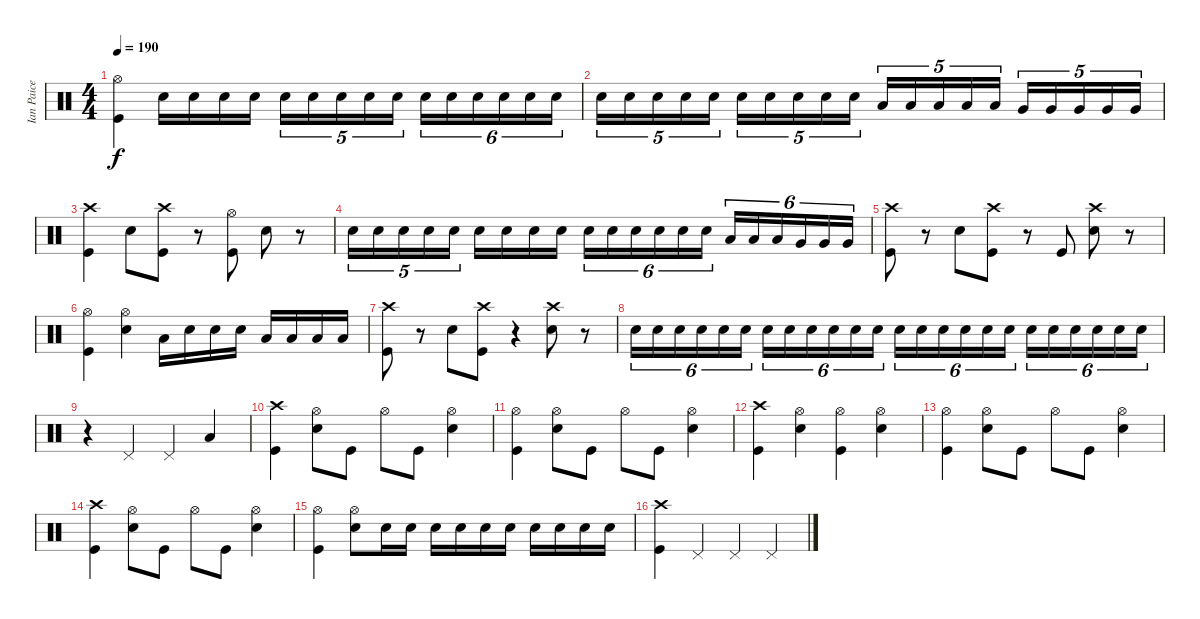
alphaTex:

\track ("Ian Paice" "Ian Paice") {instrument percussion}
\staff {score}
\articulation defaults
\ts (4 4)
\tempo 190
\clef neutral
\ks c
("Hi-Hat (open)" "Kick (hit)").4{dy f} "Snare (hit) 2".16 "Snare (hit) 2".16 "Snare (hit) 2".16 "Snare (hit) 2".16 "Snare (hit) 2".16{tu (5 4)} "Snare (hit) 2".16{tu (5 4)} "Snare (hit) 2".16{tu (5 4)} "Snare (hit) 2".16{tu (5 4)} "Snare (hit) 2".16{tu (5 4)} "Snare (hit) 2".16{tu (6 4)} "Snare (hit) 2".16{tu (6 4)} "Snare (hit) 2".16{tu (6 4)} "Snare (hit) 2".16{tu (6 4)} "Snare (hit) 2".16{tu (6 4)} "Snare (hit) 2".16{tu (6 4)} |
"Snare (hit) 2".16{tu (5 4)} "Snare (hit) 2".16{tu (5 4)} "Snare (hit) 2".16{tu (5 4)} "Snare (hit) 2".16{tu (5 4)} "Snare (hit) 2".16{tu (5 4)} "Snare (hit) 2".16{tu (5 4)} "Snare (hit) 2".16{tu (5 4)} "Snare (hit) 2".16{tu (5 4)} "Snare (hit) 2".16{tu (5 4)} "Snare (hit) 2".16{tu (5 4)} "Low Tom (hit)".16{tu (5 4)} "Low Tom (hit)".16{tu (5 4)} "Low Tom (hit)".16{tu (5 4)} "Low Tom (hit)".16{tu (5 4)} "Low Tom (hit)".16{tu (5 4)} "Very Low Tom (hit)".16{tu (5 4)} "Very Low Tom (hit)".16{tu (5 4)} "Very Low Tom (hit)".16{tu (5 4)} "Very Low Tom (hit)".16{tu (5 4)} "Very Low Tom (hit)".16{tu (5 4)} |
("Crash high (hit)" "Kick (hit)").4 "Snare (hit) 2".8 ("Crash high (hit)" "Kick (hit)").8 r.8 ("Hi-Hat (open)" "Kick (hit)").8 "Snare (hit) 2".8 r.8 |
"Snare (hit) 2".16{tu (5 4)} "Snare (hit) 2".16{tu (5 4)} "Snare (hit) 2".16{tu (5 4)} "Snare (hit) 2".16{tu (5 4)} "Snare (hit) 2".16{tu (5 4)} "Snare (hit) 2".16 "Snare (hit) 2".16 "Snare (hit) 2".16 "Snare (hit) 2".16 "Snare (hit) 2".16{tu (6 4)} "Snare (hit) 2".16{tu (6 4)} "Snare (hit) 2".16{tu (6 4)} "Snare (hit) 2".16{tu (6 4)} "Snare (hit) 2".16{tu (6 4)} "Snare (hit) 2".16{tu (6 4)} "Low Tom (hit)".16{tu (6 4)} "Low Tom (hit)".16{tu (6 4)} "Low Tom (hit)".16{tu (6 4)} "Very Low Tom (hit)".16{tu (6 4)} "Very Low Tom (hit)".16{tu (6 4)} "Very Low Tom (hit)".16{tu (6 4)} |
("Crash high (hit)" "Kick (hit)").8 r.8 "Snare (hit) 2".8 ("Kick (hit)" "Crash high (hit)").8 r.8 "Kick (hit)".8 ("Crash high (hit)" "Snare (hit) 2").8 r.8 |
("Hi-Hat (open)" "Kick (hit)").4 ("Hi-Hat (open)" "Snare (hit) 2").4 "Low Tom (hit)".16 "Snare (hit) 2".16 "Snare (hit) 2".16 "Snare (hit) 2".16 "Low Tom (hit)".16 "Low Tom (hit)".16 "Low Tom (hit)".16 "Low Tom (hit)".16 |
("Crash high (hit)" "Kick (hit)").8 r.8 "Snare (hit) 2".8 ("Crash high (hit)" "Kick (hit)").8 r.4 ("Crash high (hit)" "Snare (hit) 2").8 r.8 |
"Snare (hit) 2".16{tu (6 4)} "Snare (hit) 2".16{tu (6 4)} "Snare (hit) 2".16{tu (6 4)} "Snare (hit) 2".16{tu (6 4)} "Snare (hit) 2".16{tu (6 4)} "Snare (hit) 2".16{tu (6 4)} "Snare (hit) 2".16{tu (6 4)} "Snare (hit) 2".16{tu (6 4)} "Snare (hit) 2".16{tu (6 4)} "Snare (hit) 2".16{tu (6 4)} "Snare (hit) 2".16{tu (6 4)} "Snare (hit) 2".16{tu (6 4)} "Snare (hit) 2".16{tu (6 4)} "Snare (hit) 2".16{tu (6 4)} "Snare (hit) 2".16{tu (6 4)} "Snare (hit) 2".16{tu (6 4)} "Snare (hit) 2".16{tu (6 4)} "Snare (hit) 2".16{tu (6 4)} "Snare (hit) 2".16{tu (6 4)} "Snare (hit) 2".16{tu (6 4)} "Snare (hit) 2".16{tu (6 4)} "Snare (hit) 2".16{tu (6 4)} "Snare (hit) 2".16{tu (6 4)} "Snare (hit) 2".16{tu (6 4)} |
r.4 "Pedal Hi-Hat (hit)".4 "Pedal Hi-Hat (hit)".4 "Low Tom (hit)".4 |
("Crash high (hit)" "Kick (hit)").4 ("Hi-Hat (open)" "Snare (hit) 2").8 "Kick (hit)".8 "Hi-Hat (open)".8 "Kick (hit)".8 ("Hi-Hat (open)" "Snare (hit) 2").4 |
("Kick (hit)" "Hi-Hat (open)").4 ("Snare (hit) 2" "Hi-Hat (open)").8 "Kick (hit)".8 "Hi-Hat (open)".8 "Kick (hit)".8 ("Snare (hit) 2" "Hi-Hat (open)").4 |
("Kick (hit)" "Crash high (hit)").4 ("Snare (hit) 2" "Hi-Hat (open)").4 ("Kick (hit)" "Hi-Hat (open)").4 ("Hi-Hat (open)" "Snare (hit) 2").4 |
("Kick (hit)" "Hi-Hat (open)").4 ("Hi-Hat (open)" "Snare (hit) 2").8 "Kick (hit)".8 "Hi-Hat (open)".8 "Kick (hit)".8 ("Hi-Hat (open)" "Snare (hit) 2").4 |
("Crash high (hit)" "Kick (hit)").4 ("Hi-Hat (open)" "Snare (hit) 2").8 "Kick (hit)".8 "Hi-Hat (open)".8 "Kick (hit)".8 ("Hi-Hat (open)" "Snare (hit) 2").4 |
("Hi-Hat (open)" "Kick (hit)").4 ("Snare (hit) 2" "Hi-Hat (open)").8 "Snare (hit) 2".16 "Snare (hit) 2".16 "Snare (hit) 2".16 "Snare (hit) 2".16 "Snare (hit) 2".16 "Snare (hit) 2".16 "Snare (hit) 2".16 "Snare (hit) 2".16 "Snare (hit) 2".16 "Snare (hit) 2".16 |
("Kick (hit)" "Crash high (hit)").4 "Pedal Hi-Hat (hit)".4 "Pedal Hi-Hat (hit)".4 "Pedal Hi-Hat (hit)".4
